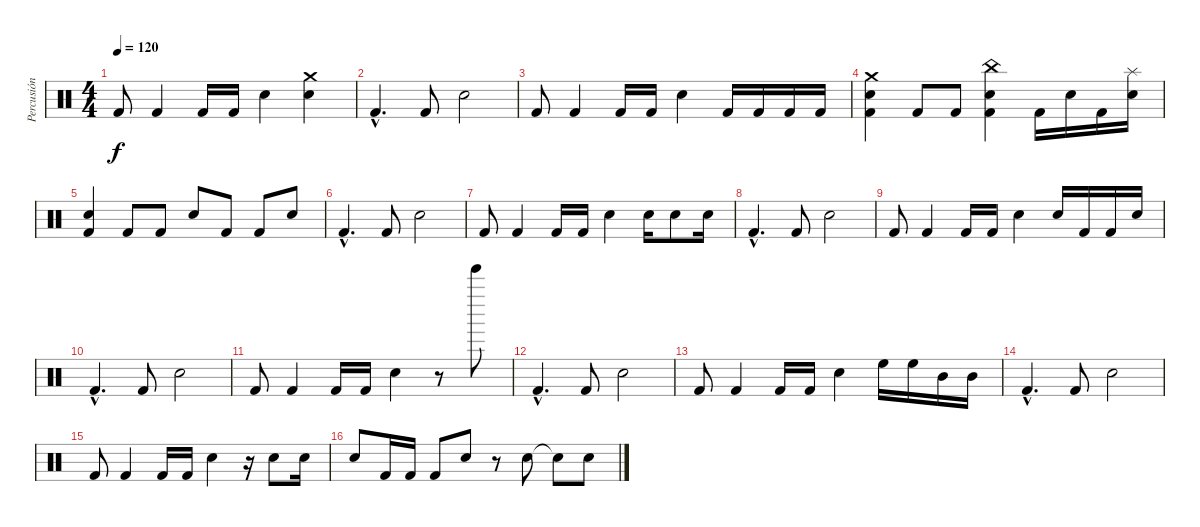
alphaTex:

\track ("Percusión" "Percusión") {instrument percussion}
\staff {score}
\articulation defaults
\ts (4 4)
\tempo 120
\clef neutral
\ks c "Kick (hit) 2".8{dy f} "Kick (hit) 2".4 "Kick (hit) 2".16 "Kick (hit) 2".16 "Electric Snare (hit)".4
("Crash medium (hit)" "Electric Snare (hit)").4 |
"Kick (hit) 2"{hac}.4{d} "Kick (hit) 2".8 "Electric Snare (hit)".2 |
"Kick (hit) 2".8 "Kick (hit) 2".4 "Kick (hit) 2".16 "Kick (hit) 2".16 "Electric Snare (hit)".4 "Kick (hit) 2".16 "Kick (hit) 2".16 "Kick (hit) 2".16 "Kick (hit) 2".16 |
("Crash medium (hit)" "Electric Snare (hit)" "Kick (hit) 2").4 "Kick (hit) 2".8 "Kick (hit) 2".8 ("China (hit)" "Electric Snare (hit)" "Kick (hit) 2").4 "Kick (hit) 2".16 "Electric Snare (hit)".16 "Kick (hit) 2".16 ("Splash (hit)" "Electric Snare (hit)").16 |
("Electric Snare (hit)" "Kick (hit) 2").4 "Kick (hit) 2".8 "Kick (hit) 2".8 "Electric Snare (hit)".8 "Kick (hit) 2".8 "Kick (hit) 2".8 "Electric Snare (hit)".8 |
"Kick (hit) 2"{hac}.4{d} "Kick (hit) 2".8 "Electric Snare (hit)".2 |
"Kick (hit) 2".8 "Kick (hit) 2".4 "Kick (hit) 2".16 "Kick (hit) 2".16 "Electric Snare (hit)".4 "Electric Snare (hit)".16 "Electric Snare (hit)".8 "Electric Snare (hit)".16 |
"Kick (hit) 2"{hac}.4{d} "Kick (hit) 2".8 "Electric Snare (hit)".2 |
"Kick (hit) 2".8 "Kick (hit) 2".4 "Kick (hit) 2".16 "Kick (hit) 2".16 "Electric Snare (hit)".4 "Electric Snare (hit)".16 "Kick (hit) 2".16 "Kick (hit) 2".16 "Electric Snare (hit)".16 |
"Kick (hit) 2"{hac}.4{d} "Kick (hit) 2".8 "Electric Snare (hit)".2 |
"Kick (hit) 2".8 "Kick (hit) 2".4 "Kick (hit) 2".16 "Kick (hit) 2".16 "Electric Snare (hit)".4 r.8 "Tinkle Bell (hit)".8 |
"Kick (hit) 2"{hac}.4{d} "Kick (hit) 2".8 "Electric Snare (hit)".2 |
"Kick (hit) 2".8 "Kick (hit) 2".4 "Kick (hit) 2".16 "Kick (hit) 2".16 "Electric Snare (hit)".4 "High Floor Tom (hit)".16 "High Floor Tom (hit)".16 "Mid Tom (hit)".16 "Mid Tom (hit)".16 |
"Kick (hit) 2"{hac}.4{d} "Kick (hit) 2".8 "Electric Snare (hit)".2 |
"Kick (hit) 2".8 "Kick (hit) 2".4 "Kick (hit) 2".16 "Kick (hit) 2".16 "Electric Snare (hit)".4 r.16 "Electric Snare (hit)".8 "Electric Snare (hit)".16 |
"Electric Snare (hit)".8 "Kick (hit) 2".16 "Kick (hit) 2".16 "Kick (hit) 2".8 "Electric Snare (hit)".8 r.8 "Electric Snare (hit)".8 "Electric Snare (hit)"{t}.8 "Electric Snare (hit)".8
